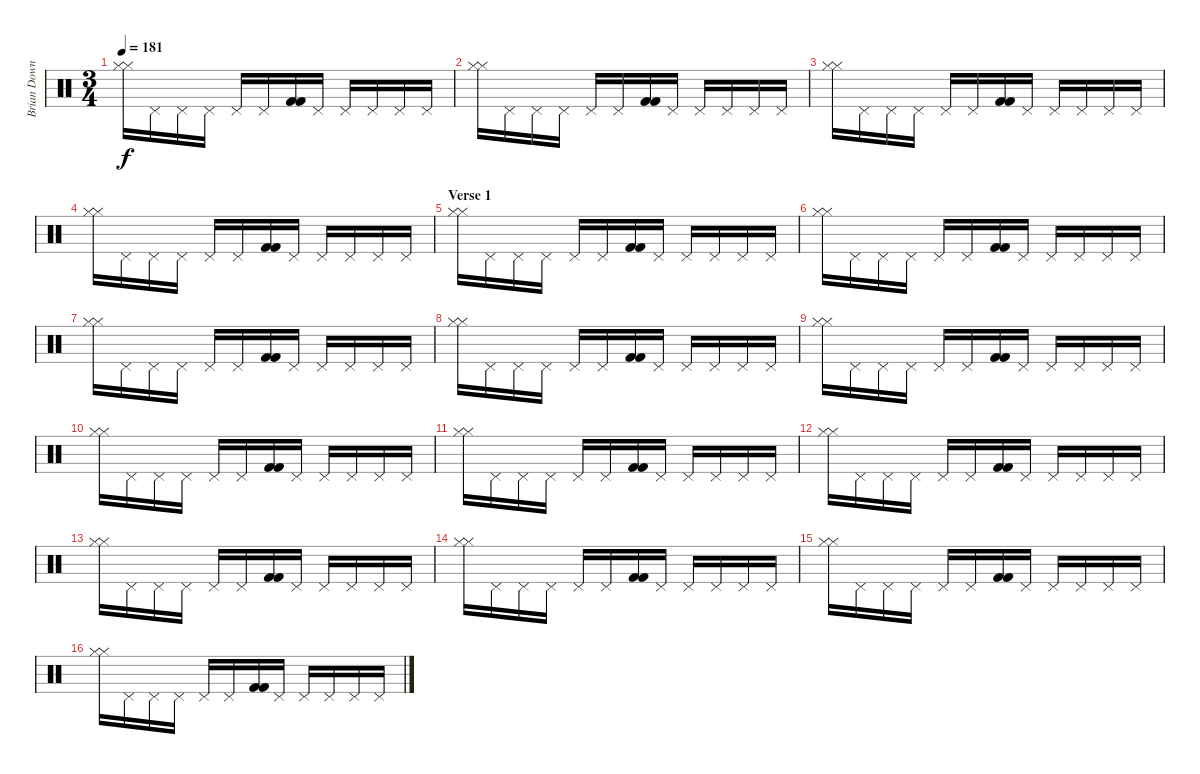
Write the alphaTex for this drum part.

\track ("Brian Downey" "Brian Down") {instrument percussion}
\staff {score}
\articulation defaults
\ts (3 4)
\tempo 181
\clef neutral
\ks c
("Hi-Hat (closed)" "Hi-Hat (closed)").16{dy f} "Pedal Hi-Hat (hit)".16 "Pedal Hi-Hat (hit)".16 "Pedal Hi-Hat (hit)".16 "Pedal Hi-Hat (hit)".16 "Pedal Hi-Hat (hit)".16 ("Kick (hit) 2" "Kick (hit) 2").16 "Pedal Hi-Hat (hit)".16 "Pedal Hi-Hat (hit)".16 "Pedal Hi-Hat (hit)".16 "Pedal Hi-Hat (hit)".16 "Pedal Hi-Hat (hit)".16 |
("Hi-Hat (closed)" "Hi-Hat (closed)").16 "Pedal Hi-Hat (hit)".16 "Pedal Hi-Hat (hit)".16 "Pedal Hi-Hat (hit)".16 "Pedal Hi-Hat (hit)".16 "Pedal Hi-Hat (hit)".16 ("Kick (hit) 2" "Kick (hit) 2").16 "Pedal Hi-Hat (hit)".16 "Pedal Hi-Hat (hit)".16 "Pedal Hi-Hat (hit)".16 "Pedal Hi-Hat (hit)".16 "Pedal Hi-Hat (hit)".16 |
("Hi-Hat (closed)" "Hi-Hat (closed)").16 "Pedal Hi-Hat (hit)".16 "Pedal Hi-Hat (hit)".16 "Pedal Hi-Hat (hit)".16 "Pedal Hi-Hat (hit)".16 "Pedal Hi-Hat (hit)".16 ("Kick (hit) 2" "Kick (hit) 2").16 "Pedal Hi-Hat (hit)".16 "Pedal Hi-Hat (hit)".16 "Pedal Hi-Hat (hit)".16 "Pedal Hi-Hat (hit)".16 "Pedal Hi-Hat (hit)".16 |
("Hi-Hat (closed)" "Hi-Hat (closed)").16 "Pedal Hi-Hat (hit)".16 "Pedal Hi-Hat (hit)".16 "Pedal Hi-Hat (hit)".16 "Pedal Hi-Hat (hit)".16 "Pedal Hi-Hat (hit)".16 ("Kick (hit) 2" "Kick (hit) 2").16 "Pedal Hi-Hat (hit)".16 "Pedal Hi-Hat (hit)".16 "Pedal Hi-Hat (hit)".16 "Pedal Hi-Hat (hit)".16 "Pedal Hi-Hat (hit)".16 |
\section ("" "Verse 1")
("Hi-Hat (closed)" "Hi-Hat (closed)").16 "Pedal Hi-Hat (hit)".16 "Pedal Hi-Hat (hit)".16 "Pedal Hi-Hat (hit)".16 "Pedal Hi-Hat (hit)".16 "Pedal Hi-Hat (hit)".16 ("Kick (hit) 2" "Kick (hit) 2").16 "Pedal Hi-Hat (hit)".16 "Pedal Hi-Hat (hit)".16 "Pedal Hi-Hat (hit)".16 "Pedal Hi-Hat (hit)".16 "Pedal Hi-Hat (hit)".16 |
("Hi-Hat (closed)" "Hi-Hat (closed)").16 "Pedal Hi-Hat (hit)".16 "Pedal Hi-Hat (hit)".16 "Pedal Hi-Hat (hit)".16 "Pedal Hi-Hat (hit)".16 "Pedal Hi-Hat (hit)".16 ("Kick (hit) 2" "Kick (hit) 2").16 "Pedal Hi-Hat (hit)".16 "Pedal Hi-Hat (hit)".16 "Pedal Hi-Hat (hit)".16 "Pedal Hi-Hat (hit)".16 "Pedal Hi-Hat (hit)".16 |
("Hi-Hat (closed)" "Hi-Hat (closed)").16 "Pedal Hi-Hat (hit)".16 "Pedal Hi-Hat (hit)".16 "Pedal Hi-Hat (hit)".16 "Pedal Hi-Hat (hit)".16 "Pedal Hi-Hat (hit)".16 ("Kick (hit) 2" "Kick (hit) 2").16 "Pedal Hi-Hat (hit)".16 "Pedal Hi-Hat (hit)".16 "Pedal Hi-Hat (hit)".16 "Pedal Hi-Hat (hit)".16 "Pedal Hi-Hat (hit)".16 |
("Hi-Hat (closed)" "Hi-Hat (closed)").16 "Pedal Hi-Hat (hit)".16 "Pedal Hi-Hat (hit)".16 "Pedal Hi-Hat (hit)".16 "Pedal Hi-Hat (hit)".16 "Pedal Hi-Hat (hit)".16 ("Kick (hit) 2" "Kick (hit) 2").16 "Pedal Hi-Hat (hit)".16 "Pedal Hi-Hat (hit)".16 "Pedal Hi-Hat (hit)".16 "Pedal Hi-Hat (hit)".16 "Pedal Hi-Hat (hit)".16 |
("Hi-Hat (closed)" "Hi-Hat (closed)").16 "Pedal Hi-Hat (hit)".16 "Pedal Hi-Hat (hit)".16 "Pedal Hi-Hat (hit)".16 "Pedal Hi-Hat (hit)".16 "Pedal Hi-Hat (hit)".16 ("Kick (hit) 2" "Kick (hit) 2").16 "Pedal Hi-Hat (hit)".16 "Pedal Hi-Hat (hit)".16 "Pedal Hi-Hat (hit)".16 "Pedal Hi-Hat (hit)".16 "Pedal Hi-Hat (hit)".16 |
("Hi-Hat (closed)" "Hi-Hat (closed)").16 "Pedal Hi-Hat (hit)".16 "Pedal Hi-Hat (hit)".16 "Pedal Hi-Hat (hit)".16 "Pedal Hi-Hat (hit)".16 "Pedal Hi-Hat (hit)".16 ("Kick (hit) 2" "Kick (hit) 2").16 "Pedal Hi-Hat (hit)".16 "Pedal Hi-Hat (hit)".16 "Pedal Hi-Hat (hit)".16 "Pedal Hi-Hat (hit)".16 "Pedal Hi-Hat (hit)".16 |
("Hi-Hat (closed)" "Hi-Hat (closed)").16 "Pedal Hi-Hat (hit)".16 "Pedal Hi-Hat (hit)".16 "Pedal Hi-Hat (hit)".16 "Pedal Hi-Hat (hit)".16 "Pedal Hi-Hat (hit)".16 ("Kick (hit) 2" "Kick (hit) 2").16 "Pedal Hi-Hat (hit)".16 "Pedal Hi-Hat (hit)".16 "Pedal Hi-Hat (hit)".16 "Pedal Hi-Hat (hit)".16 "Pedal Hi-Hat (hit)".16 |
("Hi-Hat (closed)" "Hi-Hat (closed)").16 "Pedal Hi-Hat (hit)".16 "Pedal Hi-Hat (hit)".16 "Pedal Hi-Hat (hit)".16 "Pedal Hi-Hat (hit)".16 "Pedal Hi-Hat (hit)".16 ("Kick (hit) 2" "Kick (hit) 2").16 "Pedal Hi-Hat (hit)".16 "Pedal Hi-Hat (hit)".16 "Pedal Hi-Hat (hit)".16 "Pedal Hi-Hat (hit)".16 "Pedal Hi-Hat (hit)".16 |
("Hi-Hat (closed)" "Hi-Hat (closed)").16 "Pedal Hi-Hat (hit)".16 "Pedal Hi-Hat (hit)".16 "Pedal Hi-Hat (hit)".16 "Pedal Hi-Hat (hit)".16 "Pedal Hi-Hat (hit)".16 ("Kick (hit) 2" "Kick (hit) 2").16 "Pedal Hi-Hat (hit)".16 "Pedal Hi-Hat (hit)".16 "Pedal Hi-Hat (hit)".16 "Pedal Hi-Hat (hit)".16 "Pedal Hi-Hat (hit)".16 |
("Hi-Hat (closed)" "Hi-Hat (closed)").16 "Pedal Hi-Hat (hit)".16 "Pedal Hi-Hat (hit)".16 "Pedal Hi-Hat (hit)".16 "Pedal Hi-Hat (hit)".16 "Pedal Hi-Hat (hit)".16 ("Kick (hit) 2" "Kick (hit) 2").16 "Pedal Hi-Hat (hit)".16 "Pedal Hi-Hat (hit)".16 "Pedal Hi-Hat (hit)".16 "Pedal Hi-Hat (hit)".16 "Pedal Hi-Hat (hit)".16 |
("Hi-Hat (closed)" "Hi-Hat (closed)").16 "Pedal Hi-Hat (hit)".16 "Pedal Hi-Hat (hit)".16 "Pedal Hi-Hat (hit)".16 "Pedal Hi-Hat (hit)".16 "Pedal Hi-Hat (hit)".16 ("Kick (hit) 2" "Kick (hit) 2").16 "Pedal Hi-Hat (hit)".16 "Pedal Hi-Hat (hit)".16 "Pedal Hi-Hat (hit)".16 "Pedal Hi-Hat (hit)".16 "Pedal Hi-Hat (hit)".16 |
("Hi-Hat (closed)" "Hi-Hat (closed)").16 "Pedal Hi-Hat (hit)".16 "Pedal Hi-Hat (hit)".16 "Pedal Hi-Hat (hit)".16 "Pedal Hi-Hat (hit)".16 "Pedal Hi-Hat (hit)".16 ("Kick (hit) 2" "Kick (hit) 2").16 "Pedal Hi-Hat (hit)".16 "Pedal Hi-Hat (hit)".16 "Pedal Hi-Hat (hit)".16 "Pedal Hi-Hat (hit)".16 "Pedal Hi-Hat (hit)".16
